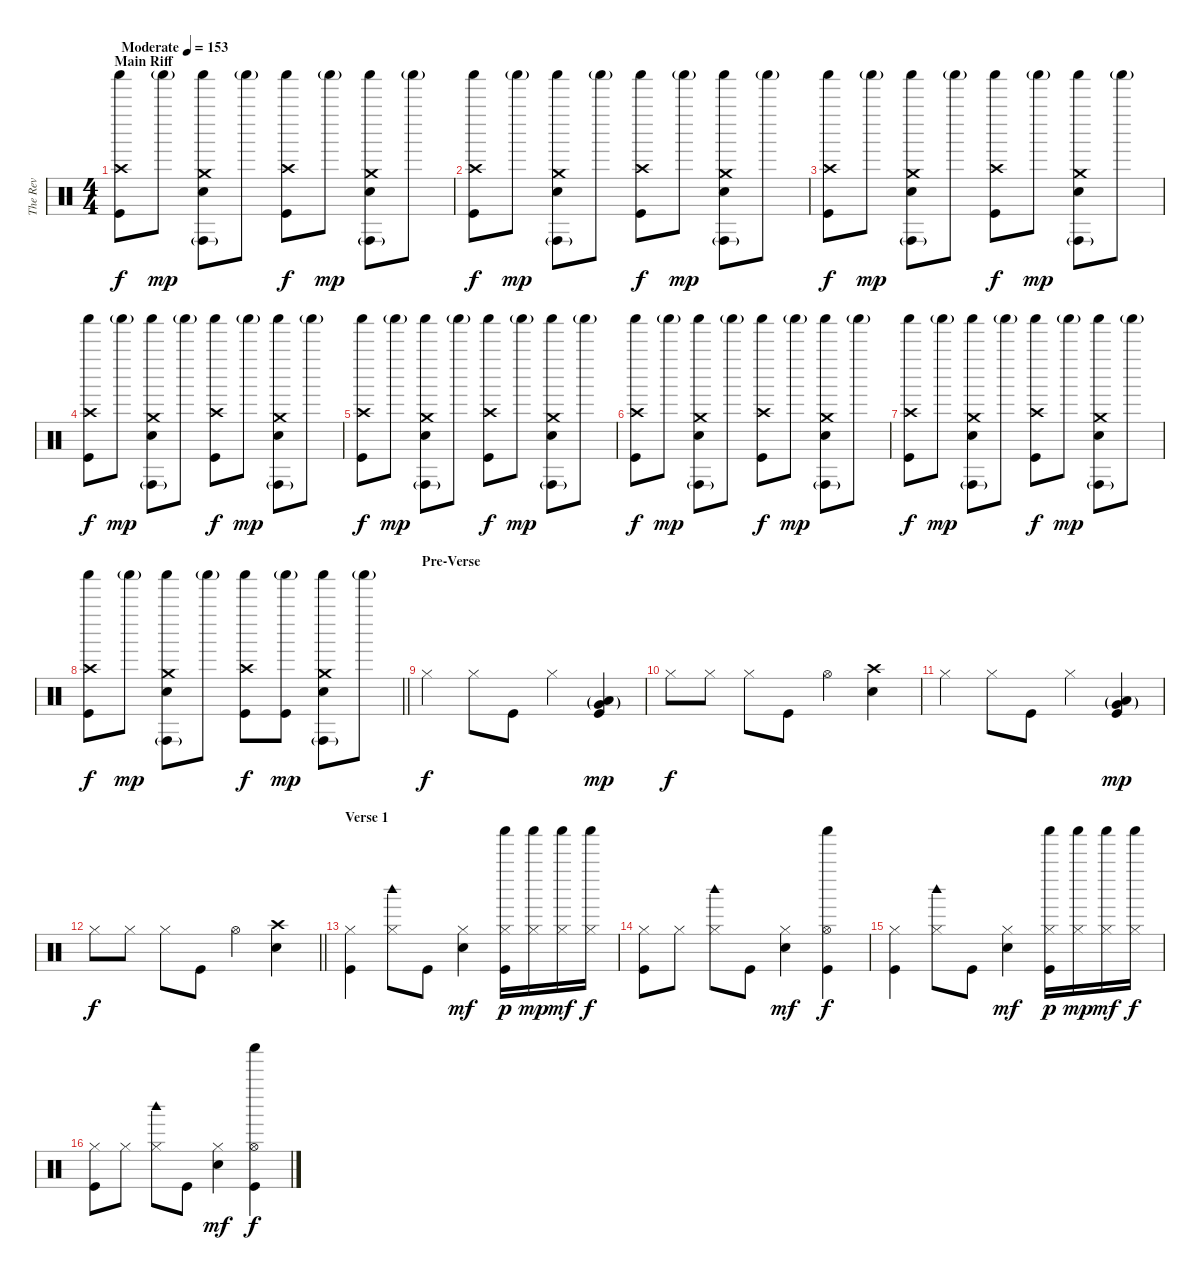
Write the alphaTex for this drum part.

\track ("The Rev" "The Rev") {instrument percussion}
\staff {score}
\articulation defaults
\ts (4 4)
\section ("" "Main Riff")
\tempo (153 "Moderate")
\clef neutral
\ks c
("Crash high (hit)" "Shaker (hit)" "Kick (hit)").8{dy f} "Shaker (hit)"{g}.8{dy mp} ("Crash medium (hit)" "Shaker (hit)" "Conga high (hit)"{g} "Electric Snare (hit)").8 "Shaker (hit)"{g}.8 ("Crash high (hit)" "Shaker (hit)" "Kick (hit)").8{dy f} "Shaker (hit)"{g}.8{dy mp} ("Crash medium (hit)" "Shaker (hit)" "Conga high (hit)"{g} "Electric Snare (hit)").8 "Shaker (hit)"{g}.8 |
("Crash high (hit)" "Shaker (hit)" "Kick (hit)").8{dy f} "Shaker (hit)"{g}.8{dy mp} ("Crash medium (hit)" "Shaker (hit)" "Conga high (hit)"{g} "Electric Snare (hit)").8 "Shaker (hit)"{g}.8 ("Crash high (hit)" "Shaker (hit)" "Kick (hit)").8{dy f} "Shaker (hit)"{g}.8{dy mp} ("Crash medium (hit)" "Shaker (hit)" "Conga high (hit)"{g} "Electric Snare (hit)").8 "Shaker (hit)"{g}.8 |
("Crash high (hit)" "Shaker (hit)" "Kick (hit)").8{dy f} "Shaker (hit)"{g}.8{dy mp} ("Crash medium (hit)" "Shaker (hit)" "Conga high (hit)"{g} "Electric Snare (hit)").8 "Shaker (hit)"{g}.8 ("Crash high (hit)" "Shaker (hit)" "Kick (hit)").8{dy f} "Shaker (hit)"{g}.8{dy mp} ("Crash medium (hit)" "Shaker (hit)" "Conga high (hit)"{g} "Electric Snare (hit)").8 "Shaker (hit)"{g}.8 |
("Crash high (hit)" "Shaker (hit)" "Kick (hit)").8{dy f} "Shaker (hit)"{g}.8{dy mp} ("Crash medium (hit)" "Shaker (hit)" "Conga high (hit)"{g} "Electric Snare (hit)").8 "Shaker (hit)"{g}.8 ("Crash high (hit)" "Shaker (hit)" "Kick (hit)").8{dy f} "Shaker (hit)"{g}.8{dy mp} ("Crash medium (hit)" "Shaker (hit)" "Conga high (hit)"{g} "Electric Snare (hit)").8 "Shaker (hit)"{g}.8 |
("Crash high (hit)" "Shaker (hit)" "Kick (hit)").8{dy f} "Shaker (hit)"{g}.8{dy mp} ("Crash medium (hit)" "Shaker (hit)" "Conga high (hit)"{g} "Electric Snare (hit)").8 "Shaker (hit)"{g}.8 ("Crash high (hit)" "Shaker (hit)" "Kick (hit)").8{dy f} "Shaker (hit)"{g}.8{dy mp} ("Crash medium (hit)" "Shaker (hit)" "Conga high (hit)"{g} "Electric Snare (hit)").8 "Shaker (hit)"{g}.8 |
("Crash high (hit)" "Shaker (hit)" "Kick (hit)").8{dy f} "Shaker (hit)"{g}.8{dy mp} ("Crash medium (hit)" "Shaker (hit)" "Conga high (hit)"{g} "Electric Snare (hit)").8 "Shaker (hit)"{g}.8 ("Crash high (hit)" "Shaker (hit)" "Kick (hit)").8{dy f} "Shaker (hit)"{g}.8{dy mp} ("Crash medium (hit)" "Shaker (hit)" "Conga high (hit)"{g} "Electric Snare (hit)").8 "Shaker (hit)"{g}.8 |
("Crash high (hit)" "Shaker (hit)" "Kick (hit)").8{dy f} "Shaker (hit)"{g}.8{dy mp} ("Crash medium (hit)" "Shaker (hit)" "Conga high (hit)"{g} "Electric Snare (hit)").8 "Shaker (hit)"{g}.8 ("Crash high (hit)" "Shaker (hit)" "Kick (hit)").8{dy f} "Shaker (hit)"{g}.8{dy mp} ("Crash medium (hit)" "Shaker (hit)" "Conga high (hit)"{g} "Electric Snare (hit)").8 "Shaker (hit)"{g}.8 |
\barLineRight lightlight
("Crash high (hit)" "Shaker (hit)" "Kick (hit)").8{dy f} "Shaker (hit)"{g}.8{dy mp} ("Crash medium (hit)" "Shaker (hit)" "Conga high (hit)"{g} "Electric Snare (hit)").8 "Shaker (hit)"{g}.8 ("Crash high (hit)" "Shaker (hit)" "Kick (hit)").8{dy f} ("Shaker (hit)"{g} "Kick (hit)").8{dy mp} ("Crash medium (hit)" "Shaker (hit)" "Conga high (hit)"{g} "Electric Snare (hit)").8 "Shaker (hit)"{g}.8 |
\section ("" "Pre-Verse")
"Hi-Hat (closed)".4{dy f} "Hi-Hat (closed)".8 "Kick (hit)".8 "Hi-Hat (closed)".4 ("Very Low Tom (hit)"{g} "Low Floor Tom (hit)"{g} "Kick (hit)").4{dy mp} |
"Hi-Hat (closed)".8{dy f} "Hi-Hat (closed)".8 "Hi-Hat (closed)".8 "Kick (hit)".8 "Hi-Hat (open)".4 ("Crash high (hit)" "Electric Snare (hit)").4 |
"Hi-Hat (closed)".4 "Hi-Hat (closed)".8 "Kick (hit)".8 "Hi-Hat (closed)".4 ("Very Low Tom (hit)"{g} "Low Floor Tom (hit)"{g} "Kick (hit)").4{dy mp} |
\barLineRight lightlight "Hi-Hat (closed)".8{dy f} "Hi-Hat (closed)".8 "Hi-Hat (closed)".8 "Kick (hit)".8 "Hi-Hat (open)".4
("Crash high (hit)" "Electric Snare (hit)").4 |
\section ("" "Verse 1")
("Hi-Hat (closed)" "Kick (hit)").4 ("Hi-Hat (closed)" "Woodblock high (hit)").8 "Kick (hit)".8 ("Hi-Hat (closed)" "Electric Snare (hit)").4{dy mf} ("Hi-Hat (closed)" "Shaker (hit)" "Kick (hit)").16{dy p} ("Hi-Hat (closed)" "Shaker (hit)").16{dy mp} ("Hi-Hat (closed)" "Shaker (hit)").16{dy mf} ("Hi-Hat (closed)" "Shaker (hit)").16{dy f} |
("Hi-Hat (closed)" "Kick (hit)").8 "Hi-Hat (closed)".8 ("Hi-Hat (closed)" "Woodblock high (hit)").8 "Kick (hit)".8 ("Hi-Hat (closed)" "Electric Snare (hit)").4{dy mf} ("Hi-Hat (open)" "Shaker (hit)" "Kick (hit)").4{dy f} |
("Hi-Hat (closed)" "Kick (hit)").4 ("Hi-Hat (closed)" "Woodblock high (hit)").8 "Kick (hit)".8 ("Hi-Hat (closed)" "Electric Snare (hit)").4{dy mf} ("Hi-Hat (closed)" "Shaker (hit)" "Kick (hit)").16{dy p} ("Hi-Hat (closed)" "Shaker (hit)").16{dy mp} ("Hi-Hat (closed)" "Shaker (hit)").16{dy mf} ("Hi-Hat (closed)" "Shaker (hit)").16{dy f} |
("Hi-Hat (closed)" "Kick (hit)").8 "Hi-Hat (closed)".8 ("Hi-Hat (closed)" "Woodblock high (hit)").8 "Kick (hit)".8 ("Hi-Hat (closed)" "Electric Snare (hit)").4{dy mf} ("Hi-Hat (open)" "Shaker (hit)" "Kick (hit)").4{dy f}
